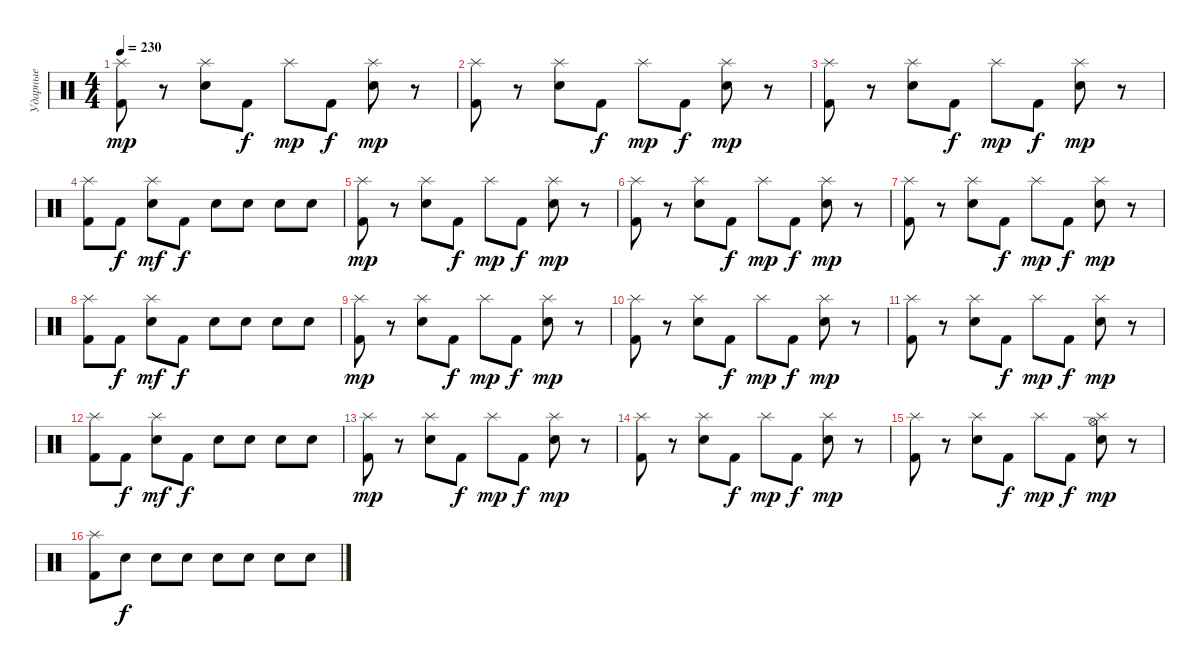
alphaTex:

\track ("Ударные" "Ударные") {instrument percussion}
\staff {score}
\articulation defaults
\ts (4 4)
\tempo 230
\clef neutral
\ks c
("Splash (hit)" "Kick (hit) 2").8{dy mp} r.8 ("Splash (hit)" "Snare (hit) 2").8 "Kick (hit) 2".8{dy f} "Splash (hit)".8{dy mp} "Kick (hit) 2".8{dy f} ("Splash (hit)" "Snare (hit) 2").8{dy mp} r.8 |
("Splash (hit)" "Kick (hit) 2").8 r.8 ("Splash (hit)" "Snare (hit) 2").8 "Kick (hit) 2".8{dy f} "Splash (hit)".8{dy mp} "Kick (hit) 2".8{dy f} ("Splash (hit)" "Snare (hit) 2").8{dy mp} r.8 |
("Splash (hit)" "Kick (hit) 2").8 r.8 ("Splash (hit)" "Snare (hit) 2").8 "Kick (hit) 2".8{dy f} "Splash (hit)".8{dy mp} "Kick (hit) 2".8{dy f} ("Splash (hit)" "Snare (hit) 2").8{dy mp} r.8 |
("Splash (hit)" "Kick (hit) 2").8 "Kick (hit) 2".8{dy f} ("Splash (hit)" "Snare (hit) 2").8{dy mf} "Kick (hit) 2".8{dy f} "Snare (hit) 2".8 "Snare (hit) 2".8 "Snare (hit) 2".8 "Snare (hit) 2".8 |
("Splash (hit)" "Kick (hit) 2").8{dy mp} r.8 ("Splash (hit)" "Snare (hit) 2").8 "Kick (hit) 2".8{dy f} "Splash (hit)".8{dy mp} "Kick (hit) 2".8{dy f} ("Splash (hit)" "Snare (hit) 2").8{dy mp} r.8 |
("Splash (hit)" "Kick (hit) 2").8 r.8 ("Splash (hit)" "Snare (hit) 2").8 "Kick (hit) 2".8{dy f} "Splash (hit)".8{dy mp} "Kick (hit) 2".8{dy f} ("Splash (hit)" "Snare (hit) 2").8{dy mp} r.8 |
("Splash (hit)" "Kick (hit) 2").8 r.8 ("Splash (hit)" "Snare (hit) 2").8 "Kick (hit) 2".8{dy f} "Splash (hit)".8{dy mp} "Kick (hit) 2".8{dy f} ("Splash (hit)" "Snare (hit) 2").8{dy mp} r.8 |
("Splash (hit)" "Kick (hit) 2").8 "Kick (hit) 2".8{dy f} ("Splash (hit)" "Snare (hit) 2").8{dy mf} "Kick (hit) 2".8{dy f} "Snare (hit) 2".8 "Snare (hit) 2".8 "Snare (hit) 2".8 "Snare (hit) 2".8 |
("Splash (hit)" "Kick (hit) 2").8{dy mp} r.8 ("Splash (hit)" "Snare (hit) 2").8 "Kick (hit) 2".8{dy f} "Splash (hit)".8{dy mp} "Kick (hit) 2".8{dy f} ("Splash (hit)" "Snare (hit) 2").8{dy mp} r.8 |
("Splash (hit)" "Kick (hit) 2").8 r.8 ("Splash (hit)" "Snare (hit) 2").8 "Kick (hit) 2".8{dy f} "Splash (hit)".8{dy mp} "Kick (hit) 2".8{dy f} ("Splash (hit)" "Snare (hit) 2").8{dy mp} r.8 |
("Splash (hit)" "Kick (hit) 2").8 r.8 ("Splash (hit)" "Snare (hit) 2").8 "Kick (hit) 2".8{dy f} "Splash (hit)".8{dy mp} "Kick (hit) 2".8{dy f} ("Splash (hit)" "Snare (hit) 2").8{dy mp} r.8 |
("Splash (hit)" "Kick (hit) 2").8 "Kick (hit) 2".8{dy f} ("Splash (hit)" "Snare (hit) 2").8{dy mf} "Kick (hit) 2".8{dy f} "Snare (hit) 2".8 "Snare (hit) 2".8 "Snare (hit) 2".8 "Snare (hit) 2".8 |
("Splash (hit)" "Kick (hit) 2").8{dy mp} r.8 ("Splash (hit)" "Snare (hit) 2").8 "Kick (hit) 2".8{dy f} "Splash (hit)".8{dy mp} "Kick (hit) 2".8{dy f} ("Splash (hit)" "Snare (hit) 2").8{dy mp} r.8 |
("Splash (hit)" "Kick (hit) 2").8 r.8 ("Splash (hit)" "Snare (hit) 2").8 "Kick (hit) 2".8{dy f} "Splash (hit)".8{dy mp} "Kick (hit) 2".8{dy f} ("Splash (hit)" "Snare (hit) 2").8{dy mp} r.8 |
("Splash (hit)" "Kick (hit) 2").8 r.8 ("Splash (hit)" "Snare (hit) 2").8 "Kick (hit) 2".8{dy f} "Splash (hit)".8{dy mp} "Kick (hit) 2".8{dy f} ("Hi-Hat (open)" "Splash (hit)" "Snare (hit) 2").8{dy mp} r.8 |
("Splash (hit)" "Kick (hit) 2").8 "Snare (hit) 2".8{dy f} "Snare (hit) 2".8 "Snare (hit) 2".8 "Snare (hit) 2".8 "Snare (hit) 2".8 "Snare (hit) 2".8 "Snare (hit) 2".8
